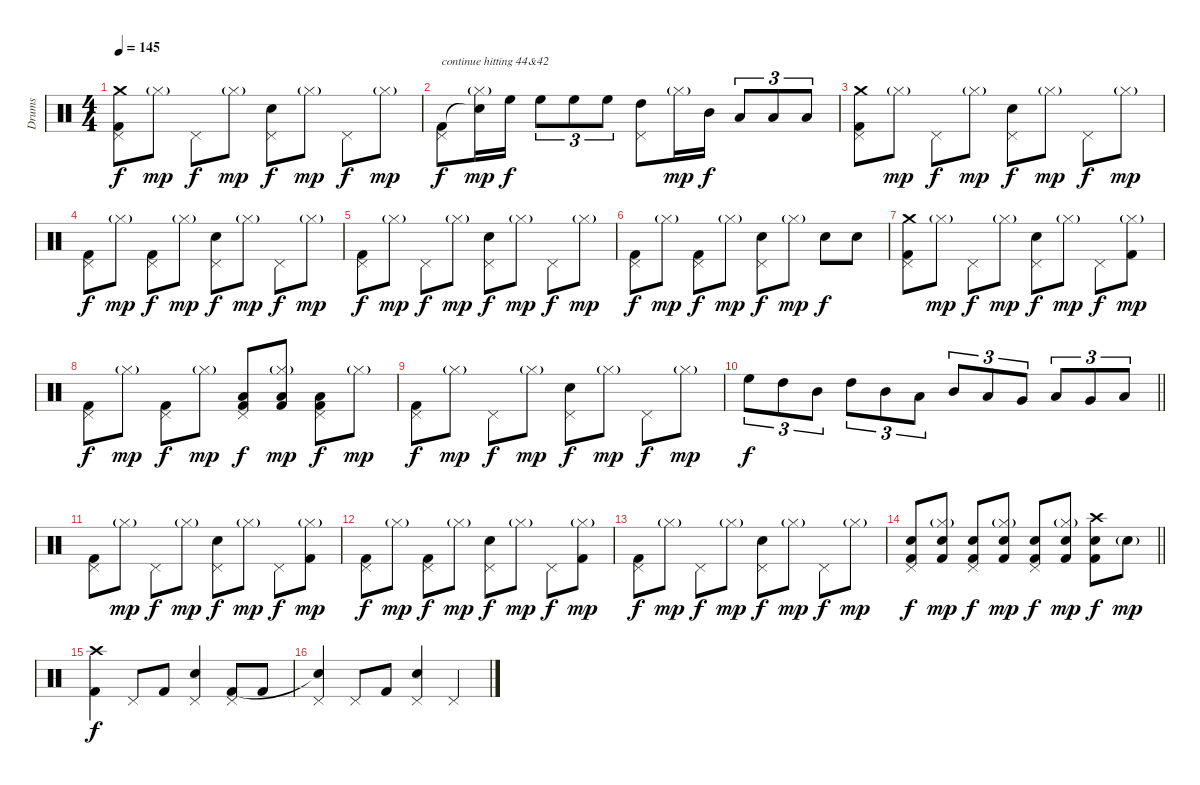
\track ("Drums" "Drums") {instrument percussion}
\staff {score}
\articulation defaults
\ts (4 4)
\tempo 145
\clef neutral
\ks c
("Pedal Hi-Hat (hit)" "Crash medium (hit)" "Kick (hit) 2").8{dy f} "Hi-Hat (closed)"{g}.8{dy mp} "Pedal Hi-Hat (hit)".8{dy f} "Hi-Hat (closed)"{g}.8{dy mp} ("Pedal Hi-Hat (hit)" "Snare (hit) 2").8{dy f} "Hi-Hat (closed)"{g}.8{dy mp} "Pedal Hi-Hat (hit)".8{dy f} "Hi-Hat (closed)"{g}.8{dy mp} |
("Pedal Hi-Hat (hit)" "Kick (hit) 2").8{txt "continue hitting 44&42 " dy f} ("Hi-Hat (closed)"{g} "Snare (hit)"{t}).16{dy mp} "High Floor Tom (hit)".16{dy f} "High Floor Tom (hit)".8{tu (3 2)} "High Floor Tom (hit)".8{tu (3 2)} "High Floor Tom (hit)".8{tu (3 2)} ("Pedal Hi-Hat (hit)" "High Tom (hit)").8 "Hi-Hat (closed)"{g}.16{dy mp} "Mid Tom (hit)".16{dy f} "Low Tom (hit)".8{tu (3 2)} "Low Tom (hit)".8{tu (3 2)} "Low Tom (hit)".8{tu (3 2)} |
("Pedal Hi-Hat (hit)" "Crash medium (hit)" "Kick (hit) 2").8 "Hi-Hat (closed)"{g}.8{dy mp} "Pedal Hi-Hat (hit)".8{dy f} "Hi-Hat (closed)"{g}.8{dy mp} ("Pedal Hi-Hat (hit)" "Snare (hit) 2").8{dy f} "Hi-Hat (closed)"{g}.8{dy mp} "Pedal Hi-Hat (hit)".8{dy f} "Hi-Hat (closed)"{g}.8{dy mp} |
("Pedal Hi-Hat (hit)" "Kick (hit) 2").8{dy f} "Hi-Hat (closed)"{g}.8{dy mp} ("Pedal Hi-Hat (hit)" "Kick (hit) 2").8{dy f} "Hi-Hat (closed)"{g}.8{dy mp} ("Pedal Hi-Hat (hit)" "Snare (hit) 2").8{dy f} "Hi-Hat (closed)"{g}.8{dy mp} "Pedal Hi-Hat (hit)".8{dy f} "Hi-Hat (closed)"{g}.8{dy mp} |
("Pedal Hi-Hat (hit)" "Kick (hit) 2").8{dy f} "Hi-Hat (closed)"{g}.8{dy mp} "Pedal Hi-Hat (hit)".8{dy f} "Hi-Hat (closed)"{g}.8{dy mp} ("Pedal Hi-Hat (hit)" "Snare (hit) 2").8{dy f} "Hi-Hat (closed)"{g}.8{dy mp} "Pedal Hi-Hat (hit)".8{dy f} "Hi-Hat (closed)"{g}.8{dy mp} |
("Pedal Hi-Hat (hit)" "Kick (hit) 2").8{dy f} "Hi-Hat (closed)"{g}.8{dy mp} ("Pedal Hi-Hat (hit)" "Kick (hit) 2").8{dy f} "Hi-Hat (closed)"{g}.8{dy mp} ("Pedal Hi-Hat (hit)" "Snare (hit) 2").8{dy f} "Hi-Hat (closed)"{g}.8{dy mp} "Snare (hit) 2".8{dy f} "Snare (hit) 2".8 |
("Pedal Hi-Hat (hit)" "Crash medium (hit)" "Kick (hit) 2").8 "Hi-Hat (closed)"{g}.8{dy mp} "Pedal Hi-Hat (hit)".8{dy f} "Hi-Hat (closed)"{g}.8{dy mp} ("Pedal Hi-Hat (hit)" "Snare (hit) 2").8{dy f} "Hi-Hat (closed)"{g}.8{dy mp} "Pedal Hi-Hat (hit)".8{dy f} ("Hi-Hat (closed)"{g} "Kick (hit) 2").8{dy mp} |
("Pedal Hi-Hat (hit)" "Kick (hit) 2").8{dy f} "Hi-Hat (closed)"{g}.8{dy mp} ("Pedal Hi-Hat (hit)" "Kick (hit) 2").8{dy f} "Hi-Hat (closed)"{g}.8{dy mp} ("Pedal Hi-Hat (hit)" "Low Tom (hit)" "Kick (hit) 2").8{dy f} ("Hi-Hat (closed)"{g} "Low Floor Tom (hit)" "Kick (hit) 2").8{dy mp} ("Pedal Hi-Hat (hit)" "Low Floor Tom (hit)" "Kick (hit) 2").8{dy f} "Hi-Hat (closed)"{g}.8{dy mp} |
("Pedal Hi-Hat (hit)" "Kick (hit) 2").8{dy f} "Hi-Hat (closed)"{g}.8{dy mp} "Pedal Hi-Hat (hit)".8{dy f} "Hi-Hat (closed)"{g}.8{dy mp} ("Pedal Hi-Hat (hit)" "Snare (hit) 2").8{dy f} "Hi-Hat (closed)"{g}.8{dy mp} "Pedal Hi-Hat (hit)".8{dy f} "Hi-Hat (closed)"{g}.8{dy mp} |
\barLineRight lightlight "High Floor Tom (hit)".8{tu (3 2) dy f} "High Tom (hit)".8{tu (3 2)} "Mid Tom (hit)".8{tu (3 2)} "High Tom (hit)".8{tu (3 2)} "Mid Tom (hit)".8{tu (3 2)} "Low Tom (hit)".8{tu (3 2)} "Mid Tom (hit)".8{tu (3 2)} "Low Tom (hit)".8{tu (3 2)} "Very Low Tom (hit)".8{tu (3 2)} "Low Tom (hit)".8{tu (3 2)} "Very Low Tom (hit)".8{tu (3 2)} "Low Floor Tom (hit)".8{tu (3 2)}
|
\section ("" "")
("Pedal Hi-Hat (hit)" "Kick (hit) 2").8 "Hi-Hat (closed)"{g}.8{dy mp} "Pedal Hi-Hat (hit)".8{dy f} "Hi-Hat (closed)"{g}.8{dy mp} ("Pedal Hi-Hat (hit)" "Snare (hit) 2").8{dy f} "Hi-Hat (closed)"{g}.8{dy mp} "Pedal Hi-Hat (hit)".8{dy f} ("Hi-Hat (closed)"{g} "Kick (hit) 2").8{dy mp} |
("Pedal Hi-Hat (hit)" "Kick (hit) 2").8{dy f} "Hi-Hat (closed)"{g}.8{dy mp} ("Pedal Hi-Hat (hit)" "Kick (hit) 2").8{dy f} "Hi-Hat (closed)"{g}.8{dy mp} ("Pedal Hi-Hat (hit)" "Snare (hit) 2").8{dy f} "Hi-Hat (closed)"{g}.8{dy mp} "Pedal Hi-Hat (hit)".8{dy f} ("Hi-Hat (closed)"{g} "Kick (hit) 2").8{dy mp} |
("Pedal Hi-Hat (hit)" "Kick (hit) 2").8{dy f} "Hi-Hat (closed)"{g}.8{dy mp} "Pedal Hi-Hat (hit)".8{dy f} "Hi-Hat (closed)"{g}.8{dy mp} ("Pedal Hi-Hat (hit)" "Snare (hit) 2").8{dy f} "Hi-Hat (closed)"{g}.8{dy mp} "Pedal Hi-Hat (hit)".8{dy f} "Hi-Hat (closed)"{g}.8{dy mp} |
\barLineRight lightlight
("Pedal Hi-Hat (hit)" "Snare (hit) 2" "Kick (hit) 2").8{dy f} ("Hi-Hat (closed)"{g} "Snare (hit) 2" "Kick (hit) 2").8{dy mp} ("Pedal Hi-Hat (hit)" "Snare (hit) 2" "Kick (hit) 2").8{dy f} ("Hi-Hat (closed)"{g} "Snare (hit) 2" "Kick (hit) 2").8{dy mp} ("Pedal Hi-Hat (hit)" "Snare (hit) 2" "Kick (hit) 2").8{dy f} ("Hi-Hat (closed)"{g} "Snare (hit) 2" "Kick (hit) 2").8{dy mp} ("Crash high (hit)" "Snare (hit) 2" "Kick (hit) 2").8{dy f} "Snare (hit) 2"{g}.8{dy mp} |
\section ("" "")
("Crash high (hit)" "Kick (hit) 2").4{dy f} "Pedal Hi-Hat (hit)".8 "Kick (hit) 2".8 ("Pedal Hi-Hat (hit)" "Snare (hit) 2").4 ("Pedal Hi-Hat (hit)" "Kick (hit) 2").8 "Kick (hit) 2".8 |
("Pedal Hi-Hat (hit)" "Snare (hit)"{t}).4 "Pedal Hi-Hat (hit)".8 "Kick (hit) 2".8 ("Pedal Hi-Hat (hit)" "Snare (hit) 2").4 "Pedal Hi-Hat (hit)".4
